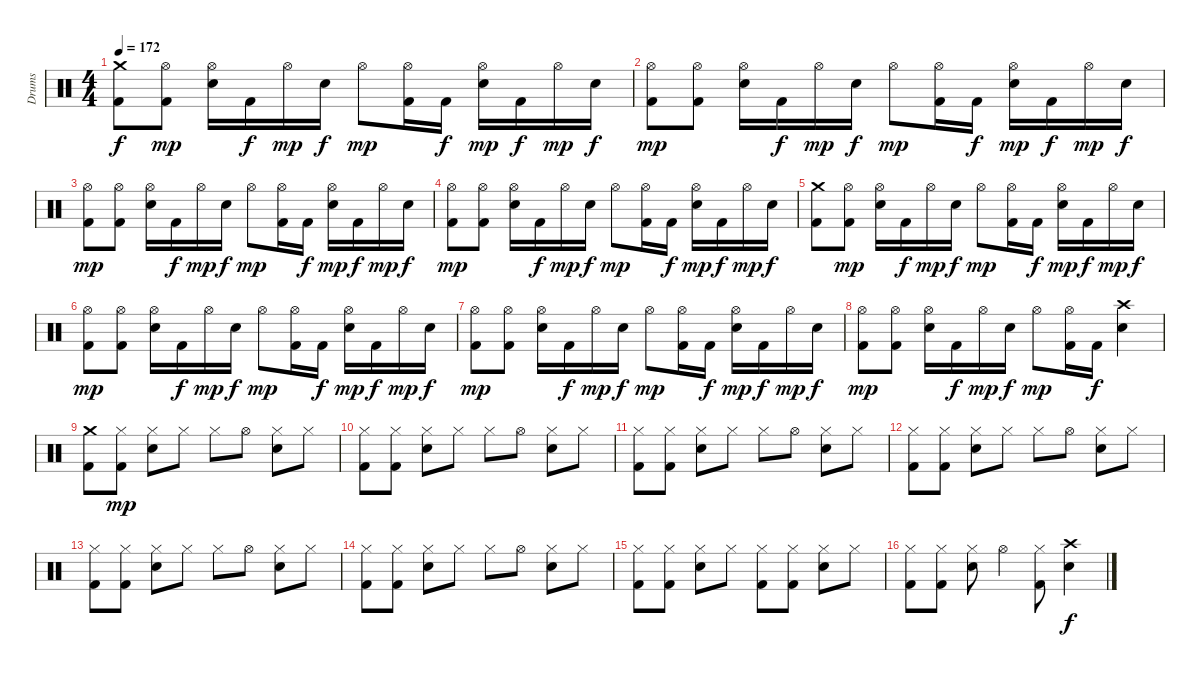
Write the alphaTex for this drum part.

\track ("Drums" "Drums") {instrument percussion}
\staff {score}
\articulation defaults
\ts (4 4)
\tempo 172
\clef neutral
\ks c
("Crash medium (hit)" "Kick (hit) 2").8{dy f} ("Hi-Hat (open)" "Kick (hit) 2").8{dy mp} ("Hi-Hat (open)" "Snare (hit) 2").16 "Kick (hit) 2".16{dy f} "Hi-Hat (open)".16{dy mp} "Snare (hit) 2".16{dy f} "Hi-Hat (open)".8{dy mp} ("Hi-Hat (open)" "Kick (hit) 2").16 "Kick (hit) 2".16{dy f} ("Hi-Hat (open)" "Snare (hit) 2").16{dy mp} "Kick (hit) 2".16{dy f} "Hi-Hat (open)".16{dy mp} "Snare (hit) 2".16{dy f} |
("Hi-Hat (open)" "Kick (hit) 2").8{dy mp} ("Hi-Hat (open)" "Kick (hit) 2").8 ("Hi-Hat (open)" "Snare (hit) 2").16 "Kick (hit) 2".16{dy f} "Hi-Hat (open)".16{dy mp} "Snare (hit) 2".16{dy f} "Hi-Hat (open)".8{dy mp} ("Hi-Hat (open)" "Kick (hit) 2").16 "Kick (hit) 2".16{dy f} ("Hi-Hat (open)" "Snare (hit) 2").16{dy mp} "Kick (hit) 2".16{dy f} "Hi-Hat (open)".16{dy mp} "Snare (hit) 2".16{dy f} |
("Hi-Hat (open)" "Kick (hit) 2").8{dy mp} ("Hi-Hat (open)" "Kick (hit) 2").8 ("Hi-Hat (open)" "Snare (hit) 2").16 "Kick (hit) 2".16{dy f} "Hi-Hat (open)".16{dy mp} "Snare (hit) 2".16{dy f} "Hi-Hat (open)".8{dy mp} ("Hi-Hat (open)" "Kick (hit) 2").16 "Kick (hit) 2".16{dy f} ("Hi-Hat (open)" "Snare (hit) 2").16{dy mp} "Kick (hit) 2".16{dy f} "Hi-Hat (open)".16{dy mp} "Snare (hit) 2".16{dy f} |
("Hi-Hat (open)" "Kick (hit) 2").8{dy mp} ("Hi-Hat (open)" "Kick (hit) 2").8 ("Hi-Hat (open)" "Snare (hit) 2").16 "Kick (hit) 2".16{dy f} "Hi-Hat (open)".16{dy mp} "Snare (hit) 2".16{dy f} "Hi-Hat (open)".8{dy mp} ("Hi-Hat (open)" "Kick (hit) 2").16 "Kick (hit) 2".16{dy f} ("Hi-Hat (open)" "Snare (hit) 2").16{dy mp} "Kick (hit) 2".16{dy f} "Hi-Hat (open)".16{dy mp} "Snare (hit) 2".16{dy f} |
("Crash medium (hit)" "Kick (hit) 2").8 ("Hi-Hat (open)" "Kick (hit) 2").8{dy mp} ("Hi-Hat (open)" "Snare (hit) 2").16 "Kick (hit) 2".16{dy f} "Hi-Hat (open)".16{dy mp} "Snare (hit) 2".16{dy f} "Hi-Hat (open)".8{dy mp} ("Hi-Hat (open)" "Kick (hit) 2").16 "Kick (hit) 2".16{dy f} ("Hi-Hat (open)" "Snare (hit) 2").16{dy mp} "Kick (hit) 2".16{dy f} "Hi-Hat (open)".16{dy mp} "Snare (hit) 2".16{dy f} |
("Hi-Hat (open)" "Kick (hit) 2").8{dy mp} ("Hi-Hat (open)" "Kick (hit) 2").8 ("Hi-Hat (open)" "Snare (hit) 2").16 "Kick (hit) 2".16{dy f} "Hi-Hat (open)".16{dy mp} "Snare (hit) 2".16{dy f} "Hi-Hat (open)".8{dy mp} ("Hi-Hat (open)" "Kick (hit) 2").16 "Kick (hit) 2".16{dy f} ("Hi-Hat (open)" "Snare (hit) 2").16{dy mp} "Kick (hit) 2".16{dy f} "Hi-Hat (open)".16{dy mp} "Snare (hit) 2".16{dy f} |
("Hi-Hat (open)" "Kick (hit) 2").8{dy mp} ("Hi-Hat (open)" "Kick (hit) 2").8 ("Hi-Hat (open)" "Snare (hit) 2").16 "Kick (hit) 2".16{dy f} "Hi-Hat (open)".16{dy mp} "Snare (hit) 2".16{dy f} "Hi-Hat (open)".8{dy mp} ("Hi-Hat (open)" "Kick (hit) 2").16 "Kick (hit) 2".16{dy f} ("Hi-Hat (open)" "Snare (hit) 2").16{dy mp} "Kick (hit) 2".16{dy f} "Hi-Hat (open)".16{dy mp} "Snare (hit) 2".16{dy f} |
("Hi-Hat (open)" "Kick (hit) 2").8{dy mp} ("Hi-Hat (open)" "Kick (hit) 2").8 ("Hi-Hat (open)" "Snare (hit) 2").16 "Kick (hit) 2".16{dy f} "Hi-Hat (open)".16{dy mp} "Snare (hit) 2".16{dy f} "Hi-Hat (open)".8{dy mp} ("Hi-Hat (open)" "Kick (hit) 2").16 "Kick (hit) 2".16{dy f} ("Crash high (hit)" "Snare (hit) 2").4 |
("Crash medium (hit)" "Kick (hit) 2").8 ("Hi-Hat (closed)" "Kick (hit) 2").8{dy mp} ("Hi-Hat (closed)" "Snare (hit) 2").8 "Hi-Hat (closed)".8 "Hi-Hat (closed)".8 "Hi-Hat (open)".8 ("Hi-Hat (closed)" "Snare (hit) 2").8 "Hi-Hat (closed)".8 |
("Hi-Hat (closed)" "Kick (hit) 2").8 ("Hi-Hat (closed)" "Kick (hit) 2").8 ("Hi-Hat (closed)" "Snare (hit) 2").8 "Hi-Hat (closed)".8 "Hi-Hat (closed)".8 "Hi-Hat (open)".8 ("Hi-Hat (closed)" "Snare (hit) 2").8 "Hi-Hat (closed)".8 |
("Hi-Hat (closed)" "Kick (hit) 2").8 ("Hi-Hat (closed)" "Kick (hit) 2").8 ("Hi-Hat (closed)" "Snare (hit) 2").8 "Hi-Hat (closed)".8 "Hi-Hat (closed)".8 "Hi-Hat (open)".8 ("Hi-Hat (closed)" "Snare (hit) 2").8 "Hi-Hat (closed)".8 |
("Hi-Hat (closed)" "Kick (hit) 2").8 ("Hi-Hat (closed)" "Kick (hit) 2").8 ("Hi-Hat (closed)" "Snare (hit) 2").8 "Hi-Hat (closed)".8 "Hi-Hat (closed)".8 "Hi-Hat (open)".8 ("Hi-Hat (closed)" "Snare (hit) 2").8 "Hi-Hat (closed)".8 |
("Hi-Hat (closed)" "Kick (hit) 2").8 ("Hi-Hat (closed)" "Kick (hit) 2").8 ("Hi-Hat (closed)" "Snare (hit) 2").8 "Hi-Hat (closed)".8 "Hi-Hat (closed)".8 "Hi-Hat (open)".8 ("Hi-Hat (closed)" "Snare (hit) 2").8 "Hi-Hat (closed)".8 |
("Hi-Hat (closed)" "Kick (hit) 2").8 ("Hi-Hat (closed)" "Kick (hit) 2").8 ("Hi-Hat (closed)" "Snare (hit) 2").8 "Hi-Hat (closed)".8 "Hi-Hat (closed)".8 "Hi-Hat (open)".8 ("Hi-Hat (closed)" "Snare (hit) 2").8 "Hi-Hat (closed)".8 |
("Hi-Hat (closed)" "Kick (hit) 2").8 ("Hi-Hat (closed)" "Kick (hit) 2").8 ("Hi-Hat (closed)" "Snare (hit) 2").8 "Hi-Hat (closed)".8 ("Hi-Hat (closed)" "Kick (hit) 2").8 ("Hi-Hat (closed)" "Kick (hit) 2").8 ("Hi-Hat (closed)" "Snare (hit) 2").8 "Hi-Hat (closed)".8 |
("Hi-Hat (closed)" "Kick (hit) 2").8 ("Hi-Hat (closed)" "Kick (hit) 2").8 ("Hi-Hat (closed)" "Snare (hit) 2").8 "Hi-Hat (open)".4 ("Hi-Hat (closed)" "Kick (hit) 2").8 ("Crash high (hit)" "Snare (hit) 2").4{dy f}
